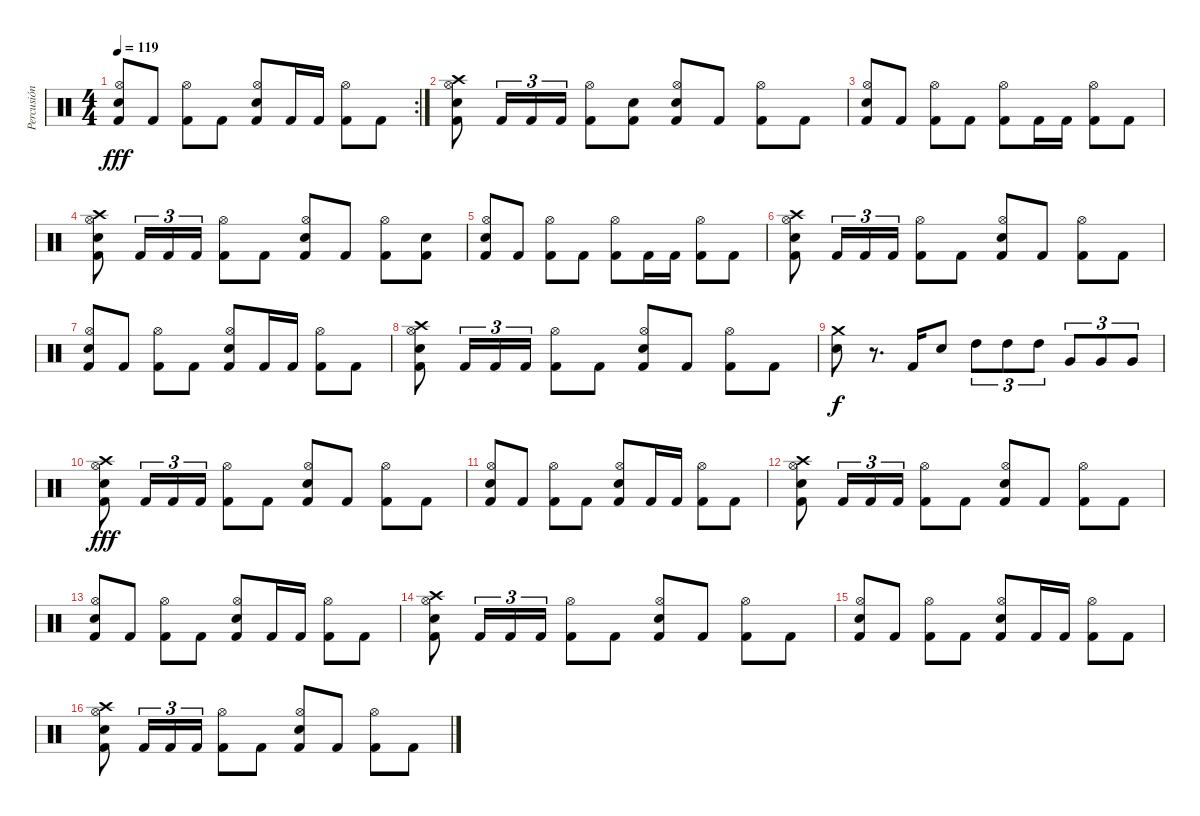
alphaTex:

\track ("Percusión" "Percusión") {instrument percussion}
\staff {score}
\articulation defaults
\rc 2
\ts (4 4)
\tempo 119
\clef neutral
\ks c
("Electric Snare (hit)" "Hi-Hat (open)" "Kick (hit) 2").8{dy fff} "Kick (hit) 2".8 ("Hi-Hat (open)" "Kick (hit) 2").8 "Kick (hit) 2".8 ("Electric Snare (hit)" "Hi-Hat (open)" "Kick (hit) 2").8 "Kick (hit) 2".16 "Kick (hit) 2".16 ("Hi-Hat (open)" "Kick (hit) 2").8 "Kick (hit) 2".8 |
("Crash high (hit)" "Electric Snare (hit)" "Hi-Hat (open)" "Kick (hit) 2").8 "Kick (hit) 2".16{tu (3 2)} "Kick (hit) 2".16{tu (3 2)} "Kick (hit) 2".16{tu (3 2)} ("Hi-Hat (open)" "Kick (hit) 2").8 ("Electric Snare (hit)" "Kick (hit) 2").8 ("Electric Snare (hit)" "Hi-Hat (open)" "Kick (hit) 2").8 "Kick (hit) 2".8 ("Hi-Hat (open)" "Kick (hit) 2").8 "Kick (hit) 2".8 |
("Electric Snare (hit)" "Hi-Hat (open)" "Kick (hit) 2").8 "Kick (hit) 2".8 ("Hi-Hat (open)" "Kick (hit) 2").8 "Kick (hit) 2".8 ("Hi-Hat (open)" "Kick (hit) 2").8 "Kick (hit) 2".16 "Kick (hit) 2".16 ("Hi-Hat (open)" "Kick (hit) 2").8 "Kick (hit) 2".8 |
("Crash high (hit)" "Electric Snare (hit)" "Hi-Hat (open)" "Kick (hit) 2").8 "Kick (hit) 2".16{tu (3 2)} "Kick (hit) 2".16{tu (3 2)} "Kick (hit) 2".16{tu (3 2)} ("Hi-Hat (open)" "Kick (hit) 2").8 "Kick (hit) 2".8 ("Electric Snare (hit)" "Hi-Hat (open)" "Kick (hit) 2").8 "Kick (hit) 2".8 ("Hi-Hat (open)" "Kick (hit) 2").8 ("Electric Snare (hit)" "Kick (hit) 2").8 |
("Electric Snare (hit)" "Hi-Hat (open)" "Kick (hit) 2").8 "Kick (hit) 2".8 ("Hi-Hat (open)" "Kick (hit) 2").8 "Kick (hit) 2".8 ("Hi-Hat (open)" "Kick (hit) 2").8 "Kick (hit) 2".16 "Kick (hit) 2".16 ("Hi-Hat (open)" "Kick (hit) 2").8 "Kick (hit) 2".8 |
("Crash high (hit)" "Electric Snare (hit)" "Hi-Hat (open)" "Kick (hit) 2").8 "Kick (hit) 2".16{tu (3 2)} "Kick (hit) 2".16{tu (3 2)} "Kick (hit) 2".16{tu (3 2)} ("Hi-Hat (open)" "Kick (hit) 2").8 "Kick (hit) 2".8 ("Electric Snare (hit)" "Hi-Hat (open)" "Kick (hit) 2").8 "Kick (hit) 2".8 ("Hi-Hat (open)" "Kick (hit) 2").8 "Kick (hit) 2".8 |
("Electric Snare (hit)" "Hi-Hat (open)" "Kick (hit) 2").8 "Kick (hit) 2".8 ("Hi-Hat (open)" "Kick (hit) 2").8 "Kick (hit) 2".8 ("Electric Snare (hit)" "Hi-Hat (open)" "Kick (hit) 2").8 "Kick (hit) 2".16 "Kick (hit) 2".16 ("Hi-Hat (open)" "Kick (hit) 2").8 "Kick (hit) 2".8 |
("Crash high (hit)" "Electric Snare (hit)" "Hi-Hat (open)" "Kick (hit) 2").8 "Kick (hit) 2".16{tu (3 2)} "Kick (hit) 2".16{tu (3 2)} "Kick (hit) 2".16{tu (3 2)} ("Hi-Hat (open)" "Kick (hit) 2").8 "Kick (hit) 2".8 ("Electric Snare (hit)" "Hi-Hat (open)" "Kick (hit) 2").8 "Kick (hit) 2".8 ("Hi-Hat (open)" "Kick (hit) 2").8 "Kick (hit) 2".8 |
("Crash medium (hit)" "Electric Snare (hit)").8{dy f} r.8{d} "Kick (hit) 2".16 "Electric Snare (hit)".8 "High Tom (hit)".8{tu (3 2)} "High Tom (hit)".8{tu (3 2)} "High Tom (hit)".8{tu (3 2)} "Very Low Tom (hit)".8{tu (3 2)} "Very Low Tom (hit)".8{tu (3 2)} "Very Low Tom (hit)".8{tu (3 2)} |
("Crash high (hit)" "Electric Snare (hit)" "Hi-Hat (open)" "Kick (hit) 2").8{dy fff} "Kick (hit) 2".16{tu (3 2)} "Kick (hit) 2".16{tu (3 2)} "Kick (hit) 2".16{tu (3 2)} ("Hi-Hat (open)" "Kick (hit) 2").8 "Kick (hit) 2".8 ("Electric Snare (hit)" "Hi-Hat (open)" "Kick (hit) 2").8 "Kick (hit) 2".8 ("Hi-Hat (open)" "Kick (hit) 2").8 "Kick (hit) 2".8 |
("Electric Snare (hit)" "Hi-Hat (open)" "Kick (hit) 2").8 "Kick (hit) 2".8 ("Hi-Hat (open)" "Kick (hit) 2").8 "Kick (hit) 2".8 ("Electric Snare (hit)" "Hi-Hat (open)" "Kick (hit) 2").8 "Kick (hit) 2".16 "Kick (hit) 2".16 ("Hi-Hat (open)" "Kick (hit) 2").8 "Kick (hit) 2".8 |
("Crash high (hit)" "Electric Snare (hit)" "Hi-Hat (open)" "Kick (hit) 2").8 "Kick (hit) 2".16{tu (3 2)} "Kick (hit) 2".16{tu (3 2)} "Kick (hit) 2".16{tu (3 2)} ("Hi-Hat (open)" "Kick (hit) 2").8 "Kick (hit) 2".8 ("Electric Snare (hit)" "Hi-Hat (open)" "Kick (hit) 2").8 "Kick (hit) 2".8 ("Hi-Hat (open)" "Kick (hit) 2").8 "Kick (hit) 2".8 |
("Electric Snare (hit)" "Hi-Hat (open)" "Kick (hit) 2").8 "Kick (hit) 2".8 ("Hi-Hat (open)" "Kick (hit) 2").8 "Kick (hit) 2".8 ("Electric Snare (hit)" "Hi-Hat (open)" "Kick (hit) 2").8 "Kick (hit) 2".16 "Kick (hit) 2".16 ("Hi-Hat (open)" "Kick (hit) 2").8 "Kick (hit) 2".8 |
("Crash high (hit)" "Electric Snare (hit)" "Hi-Hat (open)" "Kick (hit) 2").8 "Kick (hit) 2".16{tu (3 2)} "Kick (hit) 2".16{tu (3 2)} "Kick (hit) 2".16{tu (3 2)} ("Hi-Hat (open)" "Kick (hit) 2").8 "Kick (hit) 2".8 ("Electric Snare (hit)" "Hi-Hat (open)" "Kick (hit) 2").8 "Kick (hit) 2".8 ("Hi-Hat (open)" "Kick (hit) 2").8 "Kick (hit) 2".8 |
("Electric Snare (hit)" "Hi-Hat (open)" "Kick (hit) 2").8 "Kick (hit) 2".8 ("Hi-Hat (open)" "Kick (hit) 2").8 "Kick (hit) 2".8 ("Electric Snare (hit)" "Hi-Hat (open)" "Kick (hit) 2").8 "Kick (hit) 2".16 "Kick (hit) 2".16 ("Hi-Hat (open)" "Kick (hit) 2").8 "Kick (hit) 2".8 |
("Crash high (hit)" "Electric Snare (hit)" "Hi-Hat (open)" "Kick (hit) 2").8 "Kick (hit) 2".16{tu (3 2)} "Kick (hit) 2".16{tu (3 2)} "Kick (hit) 2".16{tu (3 2)} ("Hi-Hat (open)" "Kick (hit) 2").8 "Kick (hit) 2".8 ("Electric Snare (hit)" "Hi-Hat (open)" "Kick (hit) 2").8 "Kick (hit) 2".8 ("Hi-Hat (open)" "Kick (hit) 2").8 "Kick (hit) 2".8
